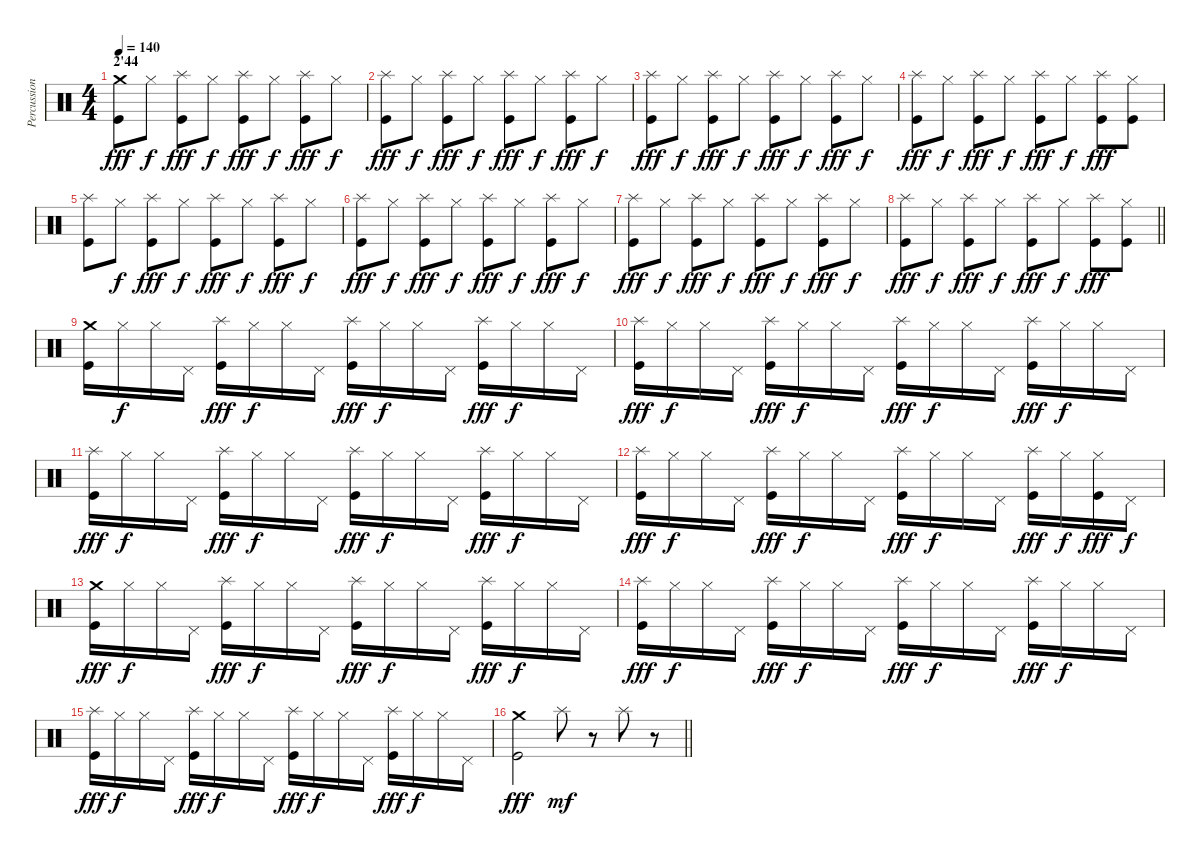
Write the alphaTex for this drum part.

\track ("Percussions" "Percussion") {instrument percussion}
\staff {score}
\articulation defaults
\ts (4 4)
\section ("" "2'44")
\tempo 140
\clef neutral
\ks c
("Crash medium (hit)" "Kick (hit)").8{dy fff} "Hi-Hat (closed)".8{dy f} ("Splash (hit)" "Kick (hit)").8{dy fff} "Hi-Hat (closed)".8{dy f} ("Splash (hit)" "Kick (hit)").8{dy fff} "Hi-Hat (closed)".8{dy f} ("Splash (hit)" "Kick (hit)").8{dy fff} "Hi-Hat (closed)".8{dy f} |
("Splash (hit)" "Kick (hit)").8{dy fff} "Hi-Hat (closed)".8{dy f} ("Splash (hit)" "Kick (hit)").8{dy fff} "Hi-Hat (closed)".8{dy f} ("Splash (hit)" "Kick (hit)").8{dy fff} "Hi-Hat (closed)".8{dy f} ("Splash (hit)" "Kick (hit)").8{dy fff} "Hi-Hat (closed)".8{dy f} |
("Splash (hit)" "Kick (hit)").8{dy fff} "Hi-Hat (closed)".8{dy f} ("Splash (hit)" "Kick (hit)").8{dy fff} "Hi-Hat (closed)".8{dy f} ("Splash (hit)" "Kick (hit)").8{dy fff} "Hi-Hat (closed)".8{dy f} ("Splash (hit)" "Kick (hit)").8{dy fff} "Hi-Hat (closed)".8{dy f} |
("Splash (hit)" "Kick (hit)").8{dy fff} "Hi-Hat (closed)".8{dy f} ("Splash (hit)" "Kick (hit)").8{dy fff} "Hi-Hat (closed)".8{dy f} ("Splash (hit)" "Kick (hit)").8{dy fff} "Hi-Hat (closed)".8{dy f} ("Splash (hit)" "Kick (hit)").8{dy fff} ("Hi-Hat (closed)" "Kick (hit)").8 |
("Splash (hit)" "Kick (hit)").8 "Hi-Hat (closed)".8{dy f} ("Splash (hit)" "Kick (hit)").8{dy fff} "Hi-Hat (closed)".8{dy f} ("Splash (hit)" "Kick (hit)").8{dy fff} "Hi-Hat (closed)".8{dy f} ("Splash (hit)" "Kick (hit)").8{dy fff} "Hi-Hat (closed)".8{dy f} |
("Splash (hit)" "Kick (hit)").8{dy fff} "Hi-Hat (closed)".8{dy f} ("Splash (hit)" "Kick (hit)").8{dy fff} "Hi-Hat (closed)".8{dy f} ("Splash (hit)" "Kick (hit)").8{dy fff} "Hi-Hat (closed)".8{dy f} ("Splash (hit)" "Kick (hit)").8{dy fff} "Hi-Hat (closed)".8{dy f} |
("Splash (hit)" "Kick (hit)").8{dy fff} "Hi-Hat (closed)".8{dy f} ("Splash (hit)" "Kick (hit)").8{dy fff} "Hi-Hat (closed)".8{dy f} ("Splash (hit)" "Kick (hit)").8{dy fff} "Hi-Hat (closed)".8{dy f} ("Splash (hit)" "Kick (hit)").8{dy fff} "Hi-Hat (closed)".8{dy f} |
\barLineRight lightlight
("Splash (hit)" "Kick (hit)").8{dy fff} "Hi-Hat (closed)".8{dy f} ("Splash (hit)" "Kick (hit)").8{dy fff} "Hi-Hat (closed)".8{dy f} ("Splash (hit)" "Kick (hit)").8{dy fff} "Hi-Hat (closed)".8{dy f} ("Splash (hit)" "Kick (hit)").8{dy fff} ("Hi-Hat (closed)" "Kick (hit)").8 |
("Crash medium (hit)" "Kick (hit)").16 "Hi-Hat (closed)".16{dy f} "Hi-Hat (closed)".16 "Pedal Hi-Hat (hit)".16 ("Splash (hit)" "Kick (hit)").16{dy fff} "Hi-Hat (closed)".16{dy f} "Hi-Hat (closed)".16 "Pedal Hi-Hat (hit)".16 ("Splash (hit)" "Kick (hit)").16{dy fff} "Hi-Hat (closed)".16{dy f} "Hi-Hat (closed)".16 "Pedal Hi-Hat (hit)".16 ("Splash (hit)" "Kick (hit)").16{dy fff} "Hi-Hat (closed)".16{dy f} "Hi-Hat (closed)".16 "Pedal Hi-Hat (hit)".16 |
("Splash (hit)" "Kick (hit)").16{dy fff} "Hi-Hat (closed)".16{dy f} "Hi-Hat (closed)".16 "Pedal Hi-Hat (hit)".16 ("Splash (hit)" "Kick (hit)").16{dy fff} "Hi-Hat (closed)".16{dy f} "Hi-Hat (closed)".16 "Pedal Hi-Hat (hit)".16 ("Splash (hit)" "Kick (hit)").16{dy fff} "Hi-Hat (closed)".16{dy f} "Hi-Hat (closed)".16 "Pedal Hi-Hat (hit)".16 ("Splash (hit)" "Kick (hit)").16{dy fff} "Hi-Hat (closed)".16{dy f} "Hi-Hat (closed)".16 "Pedal Hi-Hat (hit)".16 |
("Splash (hit)" "Kick (hit)").16{dy fff} "Hi-Hat (closed)".16{dy f} "Hi-Hat (closed)".16 "Pedal Hi-Hat (hit)".16 ("Splash (hit)" "Kick (hit)").16{dy fff} "Hi-Hat (closed)".16{dy f} "Hi-Hat (closed)".16 "Pedal Hi-Hat (hit)".16 ("Splash (hit)" "Kick (hit)").16{dy fff} "Hi-Hat (closed)".16{dy f} "Hi-Hat (closed)".16 "Pedal Hi-Hat (hit)".16 ("Splash (hit)" "Kick (hit)").16{dy fff} "Hi-Hat (closed)".16{dy f} "Hi-Hat (closed)".16 "Pedal Hi-Hat (hit)".16 |
("Splash (hit)" "Kick (hit)").16{dy fff} "Hi-Hat (closed)".16{dy f} "Hi-Hat (closed)".16 "Pedal Hi-Hat (hit)".16 ("Splash (hit)" "Kick (hit)").16{dy fff} "Hi-Hat (closed)".16{dy f} "Hi-Hat (closed)".16 "Pedal Hi-Hat (hit)".16 ("Splash (hit)" "Kick (hit)").16{dy fff} "Hi-Hat (closed)".16{dy f} "Hi-Hat (closed)".16 "Pedal Hi-Hat (hit)".16 ("Splash (hit)" "Kick (hit)").16{dy fff} "Hi-Hat (closed)".16{dy f} ("Hi-Hat (closed)" "Kick (hit)").16{dy fff} "Pedal Hi-Hat (hit)".16{dy f} |
("Crash medium (hit)" "Kick (hit)").16{dy fff} "Hi-Hat (closed)".16{dy f} "Hi-Hat (closed)".16 "Pedal Hi-Hat (hit)".16 ("Splash (hit)" "Kick (hit)").16{dy fff} "Hi-Hat (closed)".16{dy f} "Hi-Hat (closed)".16 "Pedal Hi-Hat (hit)".16 ("Splash (hit)" "Kick (hit)").16{dy fff} "Hi-Hat (closed)".16{dy f} "Hi-Hat (closed)".16 "Pedal Hi-Hat (hit)".16 ("Splash (hit)" "Kick (hit)").16{dy fff} "Hi-Hat (closed)".16{dy f} "Hi-Hat (closed)".16 "Pedal Hi-Hat (hit)".16 |
("Splash (hit)" "Kick (hit)").16{dy fff} "Hi-Hat (closed)".16{dy f} "Hi-Hat (closed)".16 "Pedal Hi-Hat (hit)".16 ("Splash (hit)" "Kick (hit)").16{dy fff} "Hi-Hat (closed)".16{dy f} "Hi-Hat (closed)".16 "Pedal Hi-Hat (hit)".16 ("Splash (hit)" "Kick (hit)").16{dy fff} "Hi-Hat (closed)".16{dy f} "Hi-Hat (closed)".16 "Pedal Hi-Hat (hit)".16 ("Splash (hit)" "Kick (hit)").16{dy fff} "Hi-Hat (closed)".16{dy f} "Hi-Hat (closed)".16 "Pedal Hi-Hat (hit)".16 |
("Splash (hit)" "Kick (hit)").16{dy fff} "Hi-Hat (closed)".16{dy f} "Hi-Hat (closed)".16 "Pedal Hi-Hat (hit)".16 ("Splash (hit)" "Kick (hit)").16{dy fff} "Hi-Hat (closed)".16{dy f} "Hi-Hat (closed)".16 "Pedal Hi-Hat (hit)".16 ("Splash (hit)" "Kick (hit)").16{dy fff} "Hi-Hat (closed)".16{dy f} "Hi-Hat (closed)".16 "Pedal Hi-Hat (hit)".16 ("Splash (hit)" "Kick (hit)").16{dy fff} "Hi-Hat (closed)".16{dy f} "Hi-Hat (closed)".16 "Pedal Hi-Hat (hit)".16 |
\barLineRight lightlight
("Crash medium (hit)" "Kick (hit)").2{dy fff} "Splash (hit)".8{dy mf} r.8 "Splash (hit)".8 r.8
